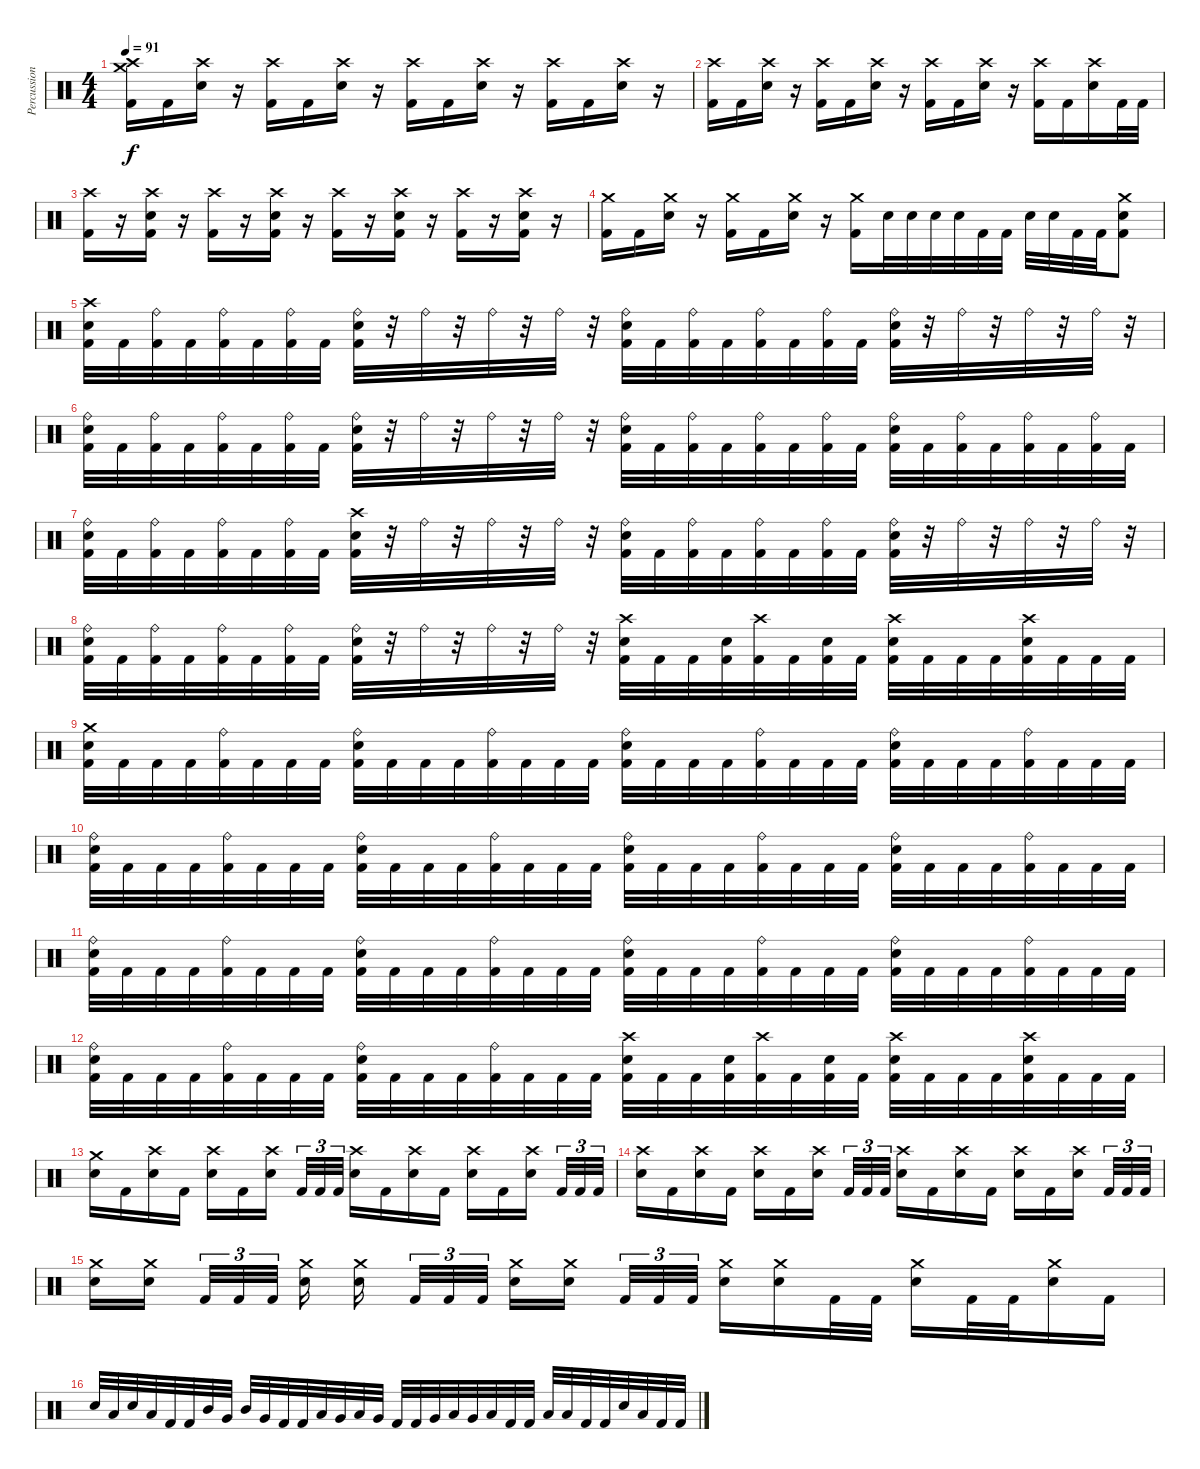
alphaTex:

\track ("Percussion" "Percussion") {instrument percussion}
\staff {score}
\articulation defaults
\ts (4 4)
\tempo 91
\clef neutral
\ks c
("Crash high (hit)" "Crash medium (hit)" "Kick (hit) 2").16{dy f} "Kick (hit) 2".16 ("Crash high (hit)" "Electric Snare (hit)").16 r.16 ("Crash high (hit)" "Kick (hit) 2").16 "Kick (hit) 2".16 ("Crash high (hit)" "Electric Snare (hit)").16 r.16 ("Crash high (hit)" "Kick (hit) 2").16 "Kick (hit) 2".16 ("Crash high (hit)" "Electric Snare (hit)").16 r.16 ("Crash high (hit)" "Kick (hit) 2").16 "Kick (hit) 2".16 ("Crash high (hit)" "Electric Snare (hit)").16 r.16 |
("Crash high (hit)" "Kick (hit) 2").16 "Kick (hit) 2".16 ("Crash high (hit)" "Electric Snare (hit)").16 r.16 ("Crash high (hit)" "Kick (hit) 2").16 "Kick (hit) 2".16 ("Crash high (hit)" "Electric Snare (hit)").16 r.16 ("Crash high (hit)" "Kick (hit) 2").16 "Kick (hit) 2".16 ("Crash high (hit)" "Electric Snare (hit)").16 r.16 ("Crash high (hit)" "Kick (hit) 2").16 "Kick (hit) 2".16 ("Crash high (hit)" "Electric Snare (hit)").16 "Kick (hit) 2".32 "Kick (hit) 2".32 |
("Crash high (hit)" "Kick (hit) 2").16 r.16 ("Crash high (hit)" "Electric Snare (hit)" "Kick (hit) 2").16 r.16 ("Crash high (hit)" "Kick (hit) 2").16 r.16 ("Crash high (hit)" "Electric Snare (hit)" "Kick (hit) 2").16 r.16 ("Crash high (hit)" "Kick (hit) 2").16 r.16 ("Crash high (hit)" "Electric Snare (hit)" "Kick (hit) 2").16 r.16 ("Crash high (hit)" "Kick (hit) 2").16 r.16 ("Crash high (hit)" "Electric Snare (hit)" "Kick (hit) 2").16 r.16 |
("Crash medium (hit)" "Kick (hit) 2").16 "Kick (hit) 2".16 ("Crash medium (hit)" "Electric Snare (hit)").16 r.16 ("Crash medium (hit)" "Kick (hit) 2").16 "Kick (hit) 2".16 ("Crash medium (hit)" "Electric Snare (hit)").16 r.16 ("Crash medium (hit)" "Kick (hit) 2").16 "Electric Snare (hit)".32 "Electric Snare (hit)".32 "Electric Snare (hit)".32 "Electric Snare (hit)".32 "Kick (hit) 2".32 "Kick (hit) 2".32 "Electric Snare (hit)".32 "Electric Snare (hit)".32 "Kick (hit) 2".32 "Kick (hit) 2".32 ("Crash medium (hit)" "Electric Snare (hit)" "Kick (hit) 2").8 |
("Crash high (hit)" "Electric Snare (hit)" "Kick (hit) 2").32 "Kick (hit) 2".32 ("Ride (bell)" "Kick (hit) 2").32 "Kick (hit) 2".32 ("Ride (bell)" "Kick (hit) 2").32 "Kick (hit) 2".32 ("Ride (bell)" "Kick (hit) 2").32 "Kick (hit) 2".32 ("Ride (bell)" "Electric Snare (hit)" "Kick (hit) 2").32 r.32 "Ride (bell)".32 r.32 "Ride (bell)".32 r.32 "Ride (bell)".32 r.32 ("Ride (bell)" "Electric Snare (hit)" "Kick (hit) 2").32 "Kick (hit) 2".32 ("Ride (bell)" "Kick (hit) 2").32 "Kick (hit) 2".32 ("Ride (bell)" "Kick (hit) 2").32 "Kick (hit) 2".32 ("Ride (bell)" "Kick (hit) 2").32 "Kick (hit) 2".32 ("Ride (bell)" "Electric Snare (hit)" "Kick (hit) 2").32 r.32 "Ride (bell)".32 r.32 "Ride (bell)".32 r.32 "Ride (bell)".32 r.32 |
("Ride (bell)" "Electric Snare (hit)" "Kick (hit) 2").32 "Kick (hit) 2".32 ("Ride (bell)" "Kick (hit) 2").32 "Kick (hit) 2".32 ("Ride (bell)" "Kick (hit) 2").32 "Kick (hit) 2".32 ("Ride (bell)" "Kick (hit) 2").32 "Kick (hit) 2".32 ("Ride (bell)" "Electric Snare (hit)" "Kick (hit) 2").32 r.32 "Ride (bell)".32 r.32 "Ride (bell)".32 r.32 "Ride (bell)".32 r.32 ("Ride (bell)" "Electric Snare (hit)" "Kick (hit) 2").32 "Kick (hit) 2".32 ("Ride (bell)" "Kick (hit) 2").32 "Kick (hit) 2".32 ("Ride (bell)" "Kick (hit) 2").32 "Kick (hit) 2".32 ("Ride (bell)" "Kick (hit) 2").32 "Kick (hit) 2".32 ("Ride (bell)" "Electric Snare (hit)" "Kick (hit) 2").32 "Kick (hit) 2".32 ("Ride (bell)" "Kick (hit) 2").32 "Kick (hit) 2".32 ("Ride (bell)" "Kick (hit) 2").32 "Kick (hit) 2".32 ("Ride (bell)" "Kick (hit) 2").32 "Kick (hit) 2".32 |
("Ride (bell)" "Electric Snare (hit)" "Kick (hit) 2").32 "Kick (hit) 2".32 ("Ride (bell)" "Kick (hit) 2").32 "Kick (hit) 2".32 ("Ride (bell)" "Kick (hit) 2").32 "Kick (hit) 2".32 ("Ride (bell)" "Kick (hit) 2").32 "Kick (hit) 2".32 ("Crash high (hit)" "Electric Snare (hit)" "Kick (hit) 2").32 r.32 "Ride (bell)".32 r.32 "Ride (bell)".32 r.32 "Ride (bell)".32 r.32 ("Ride (bell)" "Electric Snare (hit)" "Kick (hit) 2").32 "Kick (hit) 2".32 ("Ride (bell)" "Kick (hit) 2").32 "Kick (hit) 2".32 ("Ride (bell)" "Kick (hit) 2").32 "Kick (hit) 2".32 ("Ride (bell)" "Kick (hit) 2").32 "Kick (hit) 2".32 ("Ride (bell)" "Electric Snare (hit)" "Kick (hit) 2").32 r.32 "Ride (bell)".32 r.32 "Ride (bell)".32 r.32 "Ride (bell)".32 r.32 |
("Ride (bell)" "Electric Snare (hit)" "Kick (hit) 2").32 "Kick (hit) 2".32 ("Ride (bell)" "Kick (hit) 2").32 "Kick (hit) 2".32 ("Ride (bell)" "Kick (hit) 2").32 "Kick (hit) 2".32 ("Ride (bell)" "Kick (hit) 2").32 "Kick (hit) 2".32 ("Ride (bell)" "Electric Snare (hit)" "Kick (hit) 2").32 r.32 "Ride (bell)".32 r.32 "Ride (bell)".32 r.32 "Ride (bell)".32 r.32 ("Crash high (hit)" "Electric Snare (hit)" "Kick (hit) 2").32 "Kick (hit) 2".32 "Kick (hit) 2".32 ("Electric Snare (hit)" "Kick (hit) 2").32 ("Crash high (hit)" "Kick (hit) 2").32 "Kick (hit) 2".32 ("Electric Snare (hit)" "Kick (hit) 2").32 "Kick (hit) 2".32 ("Crash high (hit)" "Electric Snare (hit)" "Kick (hit) 2").32 "Kick (hit) 2".32 "Kick (hit) 2".32 "Kick (hit) 2".32 ("Crash high (hit)" "Electric Snare (hit)" "Kick (hit) 2").32 "Kick (hit) 2".32 "Kick (hit) 2".32 "Kick (hit) 2".32 |
("Crash medium (hit)" "Electric Snare (hit)" "Kick (hit) 2").32 "Kick (hit) 2".32 "Kick (hit) 2".32 "Kick (hit) 2".32 ("Ride (bell)" "Kick (hit) 2").32 "Kick (hit) 2".32 "Kick (hit) 2".32 "Kick (hit) 2".32 ("Ride (bell)" "Electric Snare (hit)" "Kick (hit) 2").32 "Kick (hit) 2".32 "Kick (hit) 2".32 "Kick (hit) 2".32 ("Ride (bell)" "Kick (hit) 2").32 "Kick (hit) 2".32 "Kick (hit) 2".32 "Kick (hit) 2".32 ("Ride (bell)" "Electric Snare (hit)" "Kick (hit) 2").32 "Kick (hit) 2".32 "Kick (hit) 2".32 "Kick (hit) 2".32 ("Ride (bell)" "Kick (hit) 2").32 "Kick (hit) 2".32 "Kick (hit) 2".32 "Kick (hit) 2".32 ("Ride (bell)" "Electric Snare (hit)" "Kick (hit) 2").32 "Kick (hit) 2".32 "Kick (hit) 2".32 "Kick (hit) 2".32 ("Ride (bell)" "Kick (hit) 2").32 "Kick (hit) 2".32 "Kick (hit) 2".32 "Kick (hit) 2".32 |
("Ride (bell)" "Electric Snare (hit)" "Kick (hit) 2").32 "Kick (hit) 2".32 "Kick (hit) 2".32 "Kick (hit) 2".32 ("Ride (bell)" "Kick (hit) 2").32 "Kick (hit) 2".32 "Kick (hit) 2".32 "Kick (hit) 2".32 ("Ride (bell)" "Electric Snare (hit)" "Kick (hit) 2").32 "Kick (hit) 2".32 "Kick (hit) 2".32 "Kick (hit) 2".32 ("Ride (bell)" "Kick (hit) 2").32 "Kick (hit) 2".32 "Kick (hit) 2".32 "Kick (hit) 2".32 ("Ride (bell)" "Electric Snare (hit)" "Kick (hit) 2").32 "Kick (hit) 2".32 "Kick (hit) 2".32 "Kick (hit) 2".32 ("Ride (bell)" "Kick (hit) 2").32 "Kick (hit) 2".32 "Kick (hit) 2".32 "Kick (hit) 2".32 ("Ride (bell)" "Electric Snare (hit)" "Kick (hit) 2").32 "Kick (hit) 2".32 "Kick (hit) 2".32 "Kick (hit) 2".32 ("Ride (bell)" "Kick (hit) 2").32 "Kick (hit) 2".32 "Kick (hit) 2".32 "Kick (hit) 2".32 |
("Ride (bell)" "Electric Snare (hit)" "Kick (hit) 2").32 "Kick (hit) 2".32 "Kick (hit) 2".32 "Kick (hit) 2".32 ("Ride (bell)" "Kick (hit) 2").32 "Kick (hit) 2".32 "Kick (hit) 2".32 "Kick (hit) 2".32 ("Ride (bell)" "Electric Snare (hit)" "Kick (hit) 2").32 "Kick (hit) 2".32 "Kick (hit) 2".32 "Kick (hit) 2".32 ("Ride (bell)" "Kick (hit) 2").32 "Kick (hit) 2".32 "Kick (hit) 2".32 "Kick (hit) 2".32 ("Ride (bell)" "Electric Snare (hit)" "Kick (hit) 2").32 "Kick (hit) 2".32 "Kick (hit) 2".32 "Kick (hit) 2".32 ("Ride (bell)" "Kick (hit) 2").32 "Kick (hit) 2".32 "Kick (hit) 2".32 "Kick (hit) 2".32 ("Ride (bell)" "Electric Snare (hit)" "Kick (hit) 2").32 "Kick (hit) 2".32 "Kick (hit) 2".32 "Kick (hit) 2".32 ("Ride (bell)" "Kick (hit) 2").32 "Kick (hit) 2".32 "Kick (hit) 2".32 "Kick (hit) 2".32 |
("Ride (bell)" "Electric Snare (hit)" "Kick (hit) 2").32 "Kick (hit) 2".32 "Kick (hit) 2".32 "Kick (hit) 2".32 ("Ride (bell)" "Kick (hit) 2").32 "Kick (hit) 2".32 "Kick (hit) 2".32 "Kick (hit) 2".32 ("Ride (bell)" "Electric Snare (hit)" "Kick (hit) 2").32 "Kick (hit) 2".32 "Kick (hit) 2".32 "Kick (hit) 2".32 ("Ride (bell)" "Kick (hit) 2").32 "Kick (hit) 2".32 "Kick (hit) 2".32 "Kick (hit) 2".32 ("Crash high (hit)" "Electric Snare (hit)" "Kick (hit) 2").32 "Kick (hit) 2".32 "Kick (hit) 2".32 ("Electric Snare (hit)" "Kick (hit) 2").32 ("Crash high (hit)" "Kick (hit) 2").32 "Kick (hit) 2".32 ("Electric Snare (hit)" "Kick (hit) 2").32 "Kick (hit) 2".32 ("Crash high (hit)" "Electric Snare (hit)" "Kick (hit) 2").32 "Kick (hit) 2".32 "Kick (hit) 2".32 "Kick (hit) 2".32 ("Crash high (hit)" "Electric Snare (hit)" "Kick (hit) 2").32 "Kick (hit) 2".32 "Kick (hit) 2".32 "Kick (hit) 2".32 |
("Crash medium (hit)" "Electric Snare (hit)").16 "Kick (hit) 2".16 ("Crash high (hit)" "Electric Snare (hit)").16 "Kick (hit) 2".16 ("Crash high (hit)" "Electric Snare (hit)").16 "Kick (hit) 2".16 ("Crash high (hit)" "Electric Snare (hit)").16{beam splitsecondary} "Kick (hit) 2".32{tu (3 2)} "Kick (hit) 2".32{tu (3 2)} "Kick (hit) 2".32{tu (3 2)} ("Crash high (hit)" "Electric Snare (hit)").16 "Kick (hit) 2".16 ("Crash high (hit)" "Electric Snare (hit)").16 "Kick (hit) 2".16 ("Crash high (hit)" "Electric Snare (hit)").16 "Kick (hit) 2".16 ("Crash high (hit)" "Electric Snare (hit)").16{beam splitsecondary} "Kick (hit) 2".32{tu (3 2)} "Kick (hit) 2".32{tu (3 2)} "Kick (hit) 2".32{tu (3 2)} |
("Crash high (hit)" "Electric Snare (hit)").16 "Kick (hit) 2".16 ("Crash high (hit)" "Electric Snare (hit)").16 "Kick (hit) 2".16 ("Crash high (hit)" "Electric Snare (hit)").16 "Kick (hit) 2".16 ("Crash high (hit)" "Electric Snare (hit)").16{beam splitsecondary} "Kick (hit) 2".32{tu (3 2)} "Kick (hit) 2".32{tu (3 2)} "Kick (hit) 2".32{tu (3 2)} ("Crash high (hit)" "Electric Snare (hit)").16 "Kick (hit) 2".16 ("Crash high (hit)" "Electric Snare (hit)").16 "Kick (hit) 2".16 ("Crash high (hit)" "Electric Snare (hit)").16 "Kick (hit) 2".16 ("Crash high (hit)" "Electric Snare (hit)").16{beam splitsecondary} "Kick (hit) 2".32{tu (3 2)} "Kick (hit) 2".32{tu (3 2)} "Kick (hit) 2".32{tu (3 2)} |
("Crash medium (hit)" "Electric Snare (hit)").16 ("Crash medium (hit)" "Electric Snare (hit)").16{beam splitsecondary} "Kick (hit) 2".32{tu (3 2)} "Kick (hit) 2".32{tu (3 2)} "Kick (hit) 2".32{tu (3 2) beam splitsecondary} ("Crash medium (hit)" "Electric Snare (hit)").16 ("Crash medium (hit)" "Electric Snare (hit)").16{beam splitsecondary} "Kick (hit) 2".32{tu (3 2)} "Kick (hit) 2".32{tu (3 2)} "Kick (hit) 2".32{tu (3 2) beam splitsecondary} ("Crash medium (hit)" "Electric Snare (hit)").16 ("Crash medium (hit)" "Electric Snare (hit)").16 "Kick (hit) 2".32{tu (3 2)} "Kick (hit) 2".32{tu (3 2)} "Kick (hit) 2".32{tu (3 2) beam splitsecondary} ("Crash medium (hit)" "Electric Snare (hit)").16 ("Crash medium (hit)" "Electric Snare (hit)").16 "Kick (hit) 2".32 "Kick (hit) 2".32 ("Crash medium (hit)" "Electric Snare (hit)").16 "Kick (hit) 2".32 "Kick (hit) 2".32 ("Crash medium (hit)" "Electric Snare (hit)").16 "Kick (hit) 2".16 |
"Electric Snare (hit)".32 "Low Floor Tom (hit)".32 "Electric Snare (hit)".32 "Low Floor Tom (hit)".32 "Kick (hit) 2".32 "Kick (hit) 2".32 "Mid Tom (hit)".32 "Very Low Tom (hit)".32 "Mid Tom (hit)".32 "Very Low Tom (hit)".32 "Kick (hit) 2".32 "Kick (hit) 2".32 "Low Tom (hit)".32 "Very Low Tom (hit)".32 "Low Tom (hit)".32 "Very Low Tom (hit)".32 "Kick (hit) 2".32 "Kick (hit) 2".32 "Very Low Tom (hit)".32 "Low Floor Tom (hit)".32 "Very Low Tom (hit)".32 "Low Floor Tom (hit)".32 "Kick (hit) 2".32 "Kick (hit) 2".32 "Low Tom (hit)".32 "Low Floor Tom (hit)".32 "Kick (hit) 2".32 "Kick (hit) 2".32 "Electric Snare (hit)".32 "Low Floor Tom (hit)".32 "Kick (hit) 2".32 "Kick (hit) 2".32
